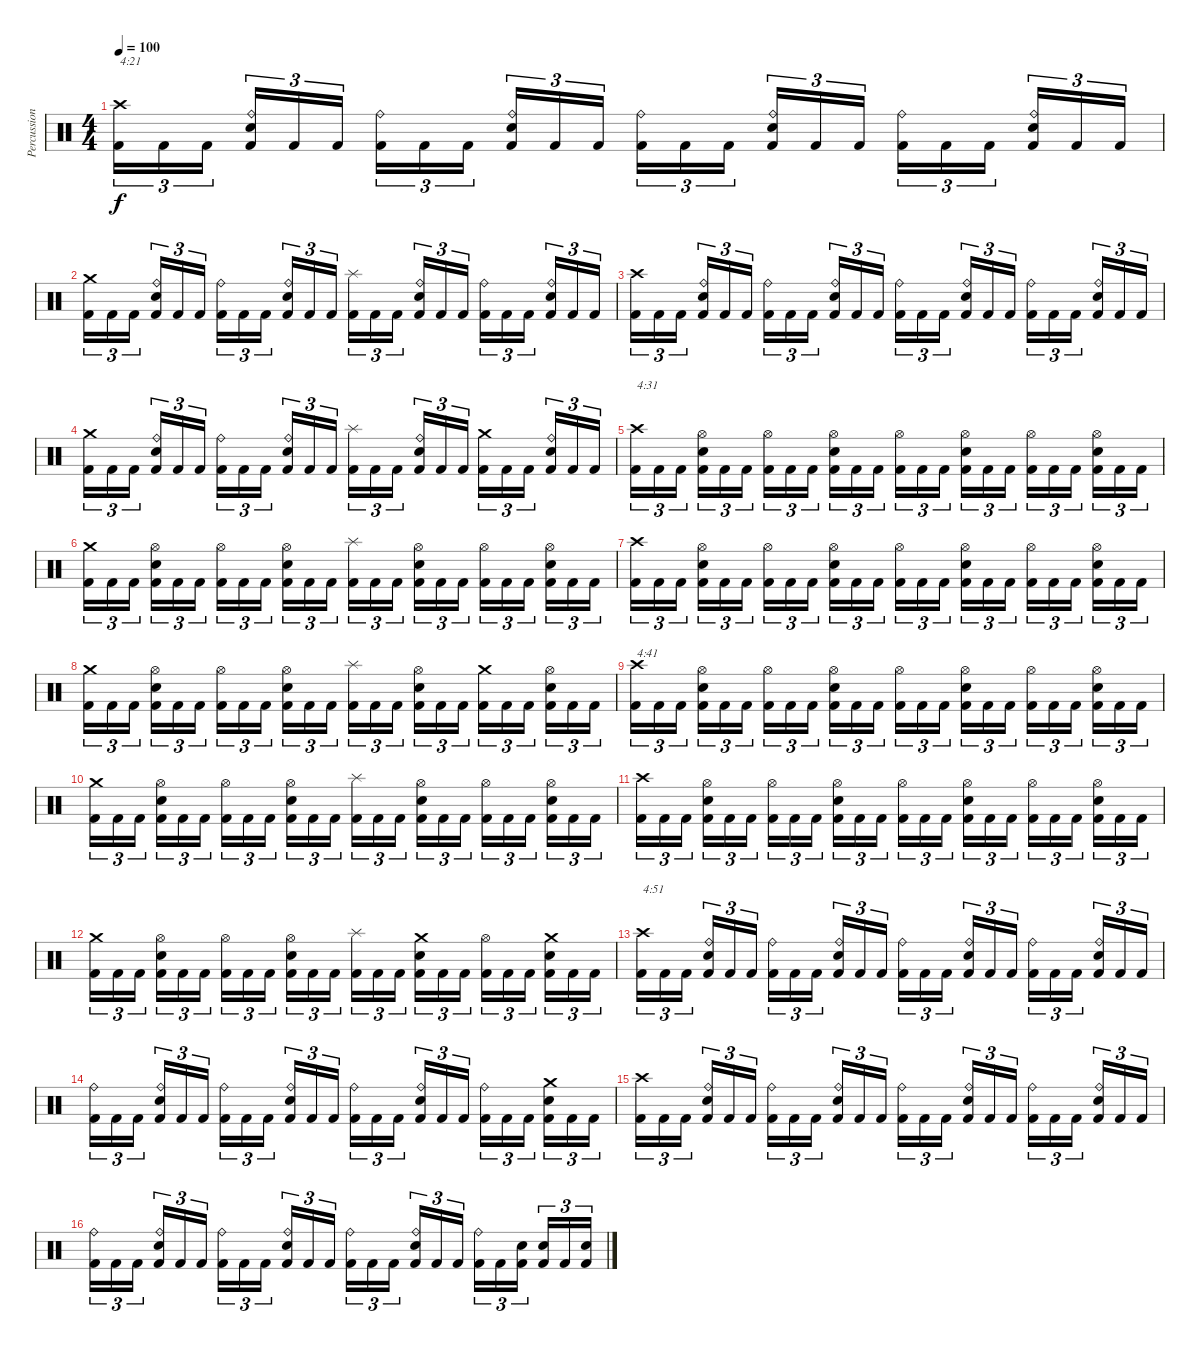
\track ("Percussion" "Percussion") {instrument percussion}
\staff {score}
\articulation defaults
\ts (4 4)
\tempo 100
\clef neutral
\ks c
("Crash high (hit)" "Kick (hit) 2").16{tu (3 2) txt "4:21" dy f} "Kick (hit) 2".16{tu (3 2)} "Kick (hit) 2".16{tu (3 2)} ("Ride (bell)" "Snare (hit) 2" "Kick (hit) 2").16{tu (3 2)} "Kick (hit) 2".16{tu (3 2)} "Kick (hit) 2".16{tu (3 2)} ("Ride (bell)" "Kick (hit) 2").16{tu (3 2)} "Kick (hit) 2".16{tu (3 2)} "Kick (hit) 2".16{tu (3 2)} ("Ride (bell)" "Snare (hit) 2" "Kick (hit) 2").16{tu (3 2)} "Kick (hit) 2".16{tu (3 2)} "Kick (hit) 2".16{tu (3 2)} ("Ride (bell)" "Kick (hit) 2").16{tu (3 2)} "Kick (hit) 2".16{tu (3 2)} "Kick (hit) 2".16{tu (3 2)} ("Ride (bell)" "Snare (hit) 2" "Kick (hit) 2").16{tu (3 2)} "Kick (hit) 2".16{tu (3 2)} "Kick (hit) 2".16{tu (3 2)} ("Ride (bell)" "Kick (hit) 2").16{tu (3 2)} "Kick (hit) 2".16{tu (3 2)} "Kick (hit) 2".16{tu (3 2)} ("Ride (bell)" "Snare (hit) 2" "Kick (hit) 2").16{tu (3 2)} "Kick (hit) 2".16{tu (3 2)} "Kick (hit) 2".16{tu (3 2)} |
("Crash medium (hit)" "Kick (hit) 2").16{tu (3 2)} "Kick (hit) 2".16{tu (3 2)} "Kick (hit) 2".16{tu (3 2)} ("Ride (bell)" "Snare (hit) 2" "Kick (hit) 2").16{tu (3 2)} "Kick (hit) 2".16{tu (3 2)} "Kick (hit) 2".16{tu (3 2)} ("Ride (bell)" "Kick (hit) 2").16{tu (3 2)} "Kick (hit) 2".16{tu (3 2)} "Kick (hit) 2".16{tu (3 2)} ("Ride (bell)" "Snare (hit) 2" "Kick (hit) 2").16{tu (3 2)} "Kick (hit) 2".16{tu (3 2)} "Kick (hit) 2".16{tu (3 2)} ("Splash (hit)" "Kick (hit) 2").16{tu (3 2)} "Kick (hit) 2".16{tu (3 2)} "Kick (hit) 2".16{tu (3 2)} ("Ride (bell)" "Snare (hit) 2" "Kick (hit) 2").16{tu (3 2)} "Kick (hit) 2".16{tu (3 2)} "Kick (hit) 2".16{tu (3 2)} ("Ride (bell)" "Kick (hit) 2").16{tu (3 2)} "Kick (hit) 2".16{tu (3 2)} "Kick (hit) 2".16{tu (3 2)} ("Ride (bell)" "Snare (hit) 2" "Kick (hit) 2").16{tu (3 2)} "Kick (hit) 2".16{tu (3 2)} "Kick (hit) 2".16{tu (3 2)} |
("Crash high (hit)" "Kick (hit) 2").16{tu (3 2)} "Kick (hit) 2".16{tu (3 2)} "Kick (hit) 2".16{tu (3 2)} ("Ride (bell)" "Snare (hit) 2" "Kick (hit) 2").16{tu (3 2)} "Kick (hit) 2".16{tu (3 2)} "Kick (hit) 2".16{tu (3 2)} ("Ride (bell)" "Kick (hit) 2").16{tu (3 2)} "Kick (hit) 2".16{tu (3 2)} "Kick (hit) 2".16{tu (3 2)} ("Ride (bell)" "Snare (hit) 2" "Kick (hit) 2").16{tu (3 2)} "Kick (hit) 2".16{tu (3 2)} "Kick (hit) 2".16{tu (3 2)} ("Ride (bell)" "Kick (hit) 2").16{tu (3 2)} "Kick (hit) 2".16{tu (3 2)} "Kick (hit) 2".16{tu (3 2)} ("Ride (bell)" "Snare (hit) 2" "Kick (hit) 2").16{tu (3 2)} "Kick (hit) 2".16{tu (3 2)} "Kick (hit) 2".16{tu (3 2)} ("Ride (bell)" "Kick (hit) 2").16{tu (3 2)} "Kick (hit) 2".16{tu (3 2)} "Kick (hit) 2".16{tu (3 2)} ("Ride (bell)" "Snare (hit) 2" "Kick (hit) 2").16{tu (3 2)} "Kick (hit) 2".16{tu (3 2)} "Kick (hit) 2".16{tu (3 2)} |
("Crash medium (hit)" "Kick (hit) 2").16{tu (3 2)} "Kick (hit) 2".16{tu (3 2)} "Kick (hit) 2".16{tu (3 2)} ("Ride (bell)" "Snare (hit) 2" "Kick (hit) 2").16{tu (3 2)} "Kick (hit) 2".16{tu (3 2)} "Kick (hit) 2".16{tu (3 2)} ("Ride (bell)" "Kick (hit) 2").16{tu (3 2)} "Kick (hit) 2".16{tu (3 2)} "Kick (hit) 2".16{tu (3 2)} ("Ride (bell)" "Snare (hit) 2" "Kick (hit) 2").16{tu (3 2)} "Kick (hit) 2".16{tu (3 2)} "Kick (hit) 2".16{tu (3 2)} ("Splash (hit)" "Kick (hit) 2").16{tu (3 2)} "Kick (hit) 2".16{tu (3 2)} "Kick (hit) 2".16{tu (3 2)} ("Ride (bell)" "Snare (hit) 2" "Kick (hit) 2").16{tu (3 2)} "Kick (hit) 2".16{tu (3 2)} "Kick (hit) 2".16{tu (3 2)} ("Crash medium (hit)" "Kick (hit) 2").16{tu (3 2)} "Kick (hit) 2".16{tu (3 2)} "Kick (hit) 2".16{tu (3 2)} ("Ride (bell)" "Snare (hit) 2" "Kick (hit) 2").16{tu (3 2)} "Kick (hit) 2".16{tu (3 2)} "Kick (hit) 2".16{tu (3 2)} |
("Crash high (hit)" "Kick (hit) 2").16{tu (3 2) txt "4:31"} "Kick (hit) 2".16{tu (3 2)} "Kick (hit) 2".16{tu (3 2)} ("Hi-Hat (open)" "Snare (hit) 2" "Kick (hit) 2").16{tu (3 2)} "Kick (hit) 2".16{tu (3 2)} "Kick (hit) 2".16{tu (3 2)} ("Hi-Hat (open)" "Kick (hit) 2").16{tu (3 2)} "Kick (hit) 2".16{tu (3 2)} "Kick (hit) 2".16{tu (3 2)} ("Hi-Hat (open)" "Snare (hit) 2" "Kick (hit) 2").16{tu (3 2)} "Kick (hit) 2".16{tu (3 2)} "Kick (hit) 2".16{tu (3 2)} ("Hi-Hat (open)" "Kick (hit) 2").16{tu (3 2)} "Kick (hit) 2".16{tu (3 2)} "Kick (hit) 2".16{tu (3 2)} ("Hi-Hat (open)" "Snare (hit) 2" "Kick (hit) 2").16{tu (3 2)} "Kick (hit) 2".16{tu (3 2)} "Kick (hit) 2".16{tu (3 2)} ("Hi-Hat (open)" "Kick (hit) 2").16{tu (3 2)} "Kick (hit) 2".16{tu (3 2)} "Kick (hit) 2".16{tu (3 2)} ("Hi-Hat (open)" "Snare (hit) 2" "Kick (hit) 2").16{tu (3 2)} "Kick (hit) 2".16{tu (3 2)} "Kick (hit) 2".16{tu (3 2)} |
("Crash medium (hit)" "Kick (hit) 2").16{tu (3 2)} "Kick (hit) 2".16{tu (3 2)} "Kick (hit) 2".16{tu (3 2)} ("Hi-Hat (open)" "Snare (hit) 2" "Kick (hit) 2").16{tu (3 2)} "Kick (hit) 2".16{tu (3 2)} "Kick (hit) 2".16{tu (3 2)} ("Hi-Hat (open)" "Kick (hit) 2").16{tu (3 2)} "Kick (hit) 2".16{tu (3 2)} "Kick (hit) 2".16{tu (3 2)} ("Hi-Hat (open)" "Snare (hit) 2" "Kick (hit) 2").16{tu (3 2)} "Kick (hit) 2".16{tu (3 2)} "Kick (hit) 2".16{tu (3 2)} ("Splash (hit)" "Kick (hit) 2").16{tu (3 2)} "Kick (hit) 2".16{tu (3 2)} "Kick (hit) 2".16{tu (3 2)} ("Hi-Hat (open)" "Snare (hit) 2" "Kick (hit) 2").16{tu (3 2)} "Kick (hit) 2".16{tu (3 2)} "Kick (hit) 2".16{tu (3 2)} ("Hi-Hat (open)" "Kick (hit) 2").16{tu (3 2)} "Kick (hit) 2".16{tu (3 2)} "Kick (hit) 2".16{tu (3 2)} ("Hi-Hat (open)" "Snare (hit) 2" "Kick (hit) 2").16{tu (3 2)} "Kick (hit) 2".16{tu (3 2)} "Kick (hit) 2".16{tu (3 2)} |
("Crash high (hit)" "Kick (hit) 2").16{tu (3 2)} "Kick (hit) 2".16{tu (3 2)} "Kick (hit) 2".16{tu (3 2)} ("Hi-Hat (open)" "Snare (hit) 2" "Kick (hit) 2").16{tu (3 2)} "Kick (hit) 2".16{tu (3 2)} "Kick (hit) 2".16{tu (3 2)} ("Hi-Hat (open)" "Kick (hit) 2").16{tu (3 2)} "Kick (hit) 2".16{tu (3 2)} "Kick (hit) 2".16{tu (3 2)} ("Hi-Hat (open)" "Snare (hit) 2" "Kick (hit) 2").16{tu (3 2)} "Kick (hit) 2".16{tu (3 2)} "Kick (hit) 2".16{tu (3 2)} ("Hi-Hat (open)" "Kick (hit) 2").16{tu (3 2)} "Kick (hit) 2".16{tu (3 2)} "Kick (hit) 2".16{tu (3 2)} ("Hi-Hat (open)" "Snare (hit) 2" "Kick (hit) 2").16{tu (3 2)} "Kick (hit) 2".16{tu (3 2)} "Kick (hit) 2".16{tu (3 2)} ("Hi-Hat (open)" "Kick (hit) 2").16{tu (3 2)} "Kick (hit) 2".16{tu (3 2)} "Kick (hit) 2".16{tu (3 2)} ("Hi-Hat (open)" "Snare (hit) 2" "Kick (hit) 2").16{tu (3 2)} "Kick (hit) 2".16{tu (3 2)} "Kick (hit) 2".16{tu (3 2)} |
("Crash medium (hit)" "Kick (hit) 2").16{tu (3 2)} "Kick (hit) 2".16{tu (3 2)} "Kick (hit) 2".16{tu (3 2)} ("Hi-Hat (open)" "Snare (hit) 2" "Kick (hit) 2").16{tu (3 2)} "Kick (hit) 2".16{tu (3 2)} "Kick (hit) 2".16{tu (3 2)} ("Hi-Hat (open)" "Kick (hit) 2").16{tu (3 2)} "Kick (hit) 2".16{tu (3 2)} "Kick (hit) 2".16{tu (3 2)} ("Hi-Hat (open)" "Snare (hit) 2" "Kick (hit) 2").16{tu (3 2)} "Kick (hit) 2".16{tu (3 2)} "Kick (hit) 2".16{tu (3 2)} ("Splash (hit)" "Kick (hit) 2").16{tu (3 2)} "Kick (hit) 2".16{tu (3 2)} "Kick (hit) 2".16{tu (3 2)} ("Hi-Hat (open)" "Snare (hit) 2" "Kick (hit) 2").16{tu (3 2)} "Kick (hit) 2".16{tu (3 2)} "Kick (hit) 2".16{tu (3 2)} ("Crash medium (hit)" "Kick (hit) 2").16{tu (3 2)} "Kick (hit) 2".16{tu (3 2)} "Kick (hit) 2".16{tu (3 2)} ("Hi-Hat (open)" "Snare (hit) 2" "Kick (hit) 2").16{tu (3 2)} "Kick (hit) 2".16{tu (3 2)} "Kick (hit) 2".16{tu (3 2)} |
("Crash high (hit)" "Kick (hit) 2").16{tu (3 2) txt "4:41"} "Kick (hit) 2".16{tu (3 2)} "Kick (hit) 2".16{tu (3 2)} ("Hi-Hat (open)" "Snare (hit) 2" "Kick (hit) 2").16{tu (3 2)} "Kick (hit) 2".16{tu (3 2)} "Kick (hit) 2".16{tu (3 2)} ("Hi-Hat (open)" "Kick (hit) 2").16{tu (3 2)} "Kick (hit) 2".16{tu (3 2)} "Kick (hit) 2".16{tu (3 2)} ("Hi-Hat (open)" "Snare (hit) 2" "Kick (hit) 2").16{tu (3 2)} "Kick (hit) 2".16{tu (3 2)} "Kick (hit) 2".16{tu (3 2)} ("Hi-Hat (open)" "Kick (hit) 2").16{tu (3 2)} "Kick (hit) 2".16{tu (3 2)} "Kick (hit) 2".16{tu (3 2)} ("Hi-Hat (open)" "Snare (hit) 2" "Kick (hit) 2").16{tu (3 2)} "Kick (hit) 2".16{tu (3 2)} "Kick (hit) 2".16{tu (3 2)} ("Hi-Hat (open)" "Kick (hit) 2").16{tu (3 2)} "Kick (hit) 2".16{tu (3 2)} "Kick (hit) 2".16{tu (3 2)} ("Hi-Hat (open)" "Snare (hit) 2" "Kick (hit) 2").16{tu (3 2)} "Kick (hit) 2".16{tu (3 2)} "Kick (hit) 2".16{tu (3 2)} |
("Crash medium (hit)" "Kick (hit) 2").16{tu (3 2)} "Kick (hit) 2".16{tu (3 2)} "Kick (hit) 2".16{tu (3 2)} ("Hi-Hat (open)" "Snare (hit) 2" "Kick (hit) 2").16{tu (3 2)} "Kick (hit) 2".16{tu (3 2)} "Kick (hit) 2".16{tu (3 2)} ("Hi-Hat (open)" "Kick (hit) 2").16{tu (3 2)} "Kick (hit) 2".16{tu (3 2)} "Kick (hit) 2".16{tu (3 2)} ("Hi-Hat (open)" "Snare (hit) 2" "Kick (hit) 2").16{tu (3 2)} "Kick (hit) 2".16{tu (3 2)} "Kick (hit) 2".16{tu (3 2)} ("Splash (hit)" "Kick (hit) 2").16{tu (3 2)} "Kick (hit) 2".16{tu (3 2)} "Kick (hit) 2".16{tu (3 2)} ("Hi-Hat (open)" "Snare (hit) 2" "Kick (hit) 2").16{tu (3 2)} "Kick (hit) 2".16{tu (3 2)} "Kick (hit) 2".16{tu (3 2)} ("Hi-Hat (open)" "Kick (hit) 2").16{tu (3 2)} "Kick (hit) 2".16{tu (3 2)} "Kick (hit) 2".16{tu (3 2)} ("Hi-Hat (open)" "Snare (hit) 2" "Kick (hit) 2").16{tu (3 2)} "Kick (hit) 2".16{tu (3 2)} "Kick (hit) 2".16{tu (3 2)} |
("Crash high (hit)" "Kick (hit) 2").16{tu (3 2)} "Kick (hit) 2".16{tu (3 2)} "Kick (hit) 2".16{tu (3 2)} ("Hi-Hat (open)" "Snare (hit) 2" "Kick (hit) 2").16{tu (3 2)} "Kick (hit) 2".16{tu (3 2)} "Kick (hit) 2".16{tu (3 2)} ("Hi-Hat (open)" "Kick (hit) 2").16{tu (3 2)} "Kick (hit) 2".16{tu (3 2)} "Kick (hit) 2".16{tu (3 2)} ("Hi-Hat (open)" "Snare (hit) 2" "Kick (hit) 2").16{tu (3 2)} "Kick (hit) 2".16{tu (3 2)} "Kick (hit) 2".16{tu (3 2)} ("Hi-Hat (open)" "Kick (hit) 2").16{tu (3 2)} "Kick (hit) 2".16{tu (3 2)} "Kick (hit) 2".16{tu (3 2)} ("Hi-Hat (open)" "Snare (hit) 2" "Kick (hit) 2").16{tu (3 2)} "Kick (hit) 2".16{tu (3 2)} "Kick (hit) 2".16{tu (3 2)} ("Hi-Hat (open)" "Kick (hit) 2").16{tu (3 2)} "Kick (hit) 2".16{tu (3 2)} "Kick (hit) 2".16{tu (3 2)} ("Hi-Hat (open)" "Snare (hit) 2" "Kick (hit) 2").16{tu (3 2)} "Kick (hit) 2".16{tu (3 2)} "Kick (hit) 2".16{tu (3 2)} |
("Crash medium (hit)" "Kick (hit) 2").16{tu (3 2)} "Kick (hit) 2".16{tu (3 2)} "Kick (hit) 2".16{tu (3 2)} ("Hi-Hat (open)" "Snare (hit) 2" "Kick (hit) 2").16{tu (3 2)} "Kick (hit) 2".16{tu (3 2)} "Kick (hit) 2".16{tu (3 2)} ("Hi-Hat (open)" "Kick (hit) 2").16{tu (3 2)} "Kick (hit) 2".16{tu (3 2)} "Kick (hit) 2".16{tu (3 2)} ("Hi-Hat (open)" "Snare (hit) 2" "Kick (hit) 2").16{tu (3 2)} "Kick (hit) 2".16{tu (3 2)} "Kick (hit) 2".16{tu (3 2)} ("Splash (hit)" "Kick (hit) 2").16{tu (3 2)} "Kick (hit) 2".16{tu (3 2)} "Kick (hit) 2".16{tu (3 2)} ("Crash medium (hit)" "Snare (hit) 2" "Kick (hit) 2").16{tu (3 2)} "Kick (hit) 2".16{tu (3 2)} "Kick (hit) 2".16{tu (3 2)} ("Hi-Hat (open)" "Kick (hit) 2").16{tu (3 2)} "Kick (hit) 2".16{tu (3 2)} "Kick (hit) 2".16{tu (3 2)} ("Crash medium (hit)" "Snare (hit) 2" "Kick (hit) 2").16{tu (3 2)} "Kick (hit) 2".16{tu (3 2)} "Kick (hit) 2".16{tu (3 2)} |
("Crash high (hit)" "Kick (hit) 2").16{tu (3 2) txt "4:51"} "Kick (hit) 2".16{tu (3 2)} "Kick (hit) 2".16{tu (3 2)} ("Ride (bell)" "Snare (hit) 2" "Kick (hit) 2").16{tu (3 2)} "Kick (hit) 2".16{tu (3 2)} "Kick (hit) 2".16{tu (3 2)} ("Ride (bell)" "Kick (hit) 2").16{tu (3 2)} "Kick (hit) 2".16{tu (3 2)} "Kick (hit) 2".16{tu (3 2)} ("Ride (bell)" "Snare (hit) 2" "Kick (hit) 2").16{tu (3 2)} "Kick (hit) 2".16{tu (3 2)} "Kick (hit) 2".16{tu (3 2)} ("Ride (bell)" "Kick (hit) 2").16{tu (3 2)} "Kick (hit) 2".16{tu (3 2)} "Kick (hit) 2".16{tu (3 2)} ("Ride (bell)" "Snare (hit) 2" "Kick (hit) 2").16{tu (3 2)} "Kick (hit) 2".16{tu (3 2)} "Kick (hit) 2".16{tu (3 2)} ("Ride (bell)" "Kick (hit) 2").16{tu (3 2)} "Kick (hit) 2".16{tu (3 2)} "Kick (hit) 2".16{tu (3 2)} ("Ride (bell)" "Snare (hit) 2" "Kick (hit) 2").16{tu (3 2)} "Kick (hit) 2".16{tu (3 2)} "Kick (hit) 2".16{tu (3 2)} |
("Ride (bell)" "Kick (hit) 2").16{tu (3 2)} "Kick (hit) 2".16{tu (3 2)} "Kick (hit) 2".16{tu (3 2)} ("Ride (bell)" "Snare (hit) 2" "Kick (hit) 2").16{tu (3 2)} "Kick (hit) 2".16{tu (3 2)} "Kick (hit) 2".16{tu (3 2)} ("Ride (bell)" "Kick (hit) 2").16{tu (3 2)} "Kick (hit) 2".16{tu (3 2)} "Kick (hit) 2".16{tu (3 2)} ("Ride (bell)" "Snare (hit) 2" "Kick (hit) 2").16{tu (3 2)} "Kick (hit) 2".16{tu (3 2)} "Kick (hit) 2".16{tu (3 2)} ("Ride (bell)" "Kick (hit) 2").16{tu (3 2)} "Kick (hit) 2".16{tu (3 2)} "Kick (hit) 2".16{tu (3 2)} ("Ride (bell)" "Snare (hit) 2" "Kick (hit) 2").16{tu (3 2)} "Kick (hit) 2".16{tu (3 2)} "Kick (hit) 2".16{tu (3 2)} ("Ride (bell)" "Kick (hit) 2").16{tu (3 2)} "Kick (hit) 2".16{tu (3 2)} "Kick (hit) 2".16{tu (3 2)} ("Crash medium (hit)" "Snare (hit) 2" "Kick (hit) 2").16{tu (3 2)} "Kick (hit) 2".16{tu (3 2)} "Kick (hit) 2".16{tu (3 2)} |
("Crash high (hit)" "Kick (hit) 2").16{tu (3 2)} "Kick (hit) 2".16{tu (3 2)} "Kick (hit) 2".16{tu (3 2)} ("Ride (bell)" "Snare (hit) 2" "Kick (hit) 2").16{tu (3 2)} "Kick (hit) 2".16{tu (3 2)} "Kick (hit) 2".16{tu (3 2)} ("Ride (bell)" "Kick (hit) 2").16{tu (3 2)} "Kick (hit) 2".16{tu (3 2)} "Kick (hit) 2".16{tu (3 2)} ("Ride (bell)" "Snare (hit) 2" "Kick (hit) 2").16{tu (3 2)} "Kick (hit) 2".16{tu (3 2)} "Kick (hit) 2".16{tu (3 2)} ("Ride (bell)" "Kick (hit) 2").16{tu (3 2)} "Kick (hit) 2".16{tu (3 2)} "Kick (hit) 2".16{tu (3 2)} ("Ride (bell)" "Snare (hit) 2" "Kick (hit) 2").16{tu (3 2)} "Kick (hit) 2".16{tu (3 2)} "Kick (hit) 2".16{tu (3 2)} ("Ride (bell)" "Kick (hit) 2").16{tu (3 2)} "Kick (hit) 2".16{tu (3 2)} "Kick (hit) 2".16{tu (3 2)} ("Ride (bell)" "Snare (hit) 2" "Kick (hit) 2").16{tu (3 2)} "Kick (hit) 2".16{tu (3 2)} "Kick (hit) 2".16{tu (3 2)} |
("Ride (bell)" "Kick (hit) 2").16{tu (3 2)} "Kick (hit) 2".16{tu (3 2)} "Kick (hit) 2".16{tu (3 2)} ("Ride (bell)" "Snare (hit) 2" "Kick (hit) 2").16{tu (3 2)} "Kick (hit) 2".16{tu (3 2)} "Kick (hit) 2".16{tu (3 2)} ("Ride (bell)" "Kick (hit) 2").16{tu (3 2)} "Kick (hit) 2".16{tu (3 2)} "Kick (hit) 2".16{tu (3 2)} ("Ride (bell)" "Snare (hit) 2" "Kick (hit) 2").16{tu (3 2)} "Kick (hit) 2".16{tu (3 2)} "Kick (hit) 2".16{tu (3 2)} ("Ride (bell)" "Kick (hit) 2").16{tu (3 2)} "Kick (hit) 2".16{tu (3 2)} "Kick (hit) 2".16{tu (3 2)} ("Ride (bell)" "Snare (hit) 2" "Kick (hit) 2").16{tu (3 2)} "Kick (hit) 2".16{tu (3 2)} "Kick (hit) 2".16{tu (3 2)} ("Ride (bell)" "Kick (hit) 2").16{tu (3 2)} "Kick (hit) 2".16{tu (3 2)} ("Snare (hit) 2" "Kick (hit) 2").16{tu (3 2)} ("Snare (hit) 2" "Kick (hit) 2").16{tu (3 2)} "Kick (hit) 2".16{tu (3 2)} ("Snare (hit) 2" "Kick (hit) 2").16{tu (3 2)}
